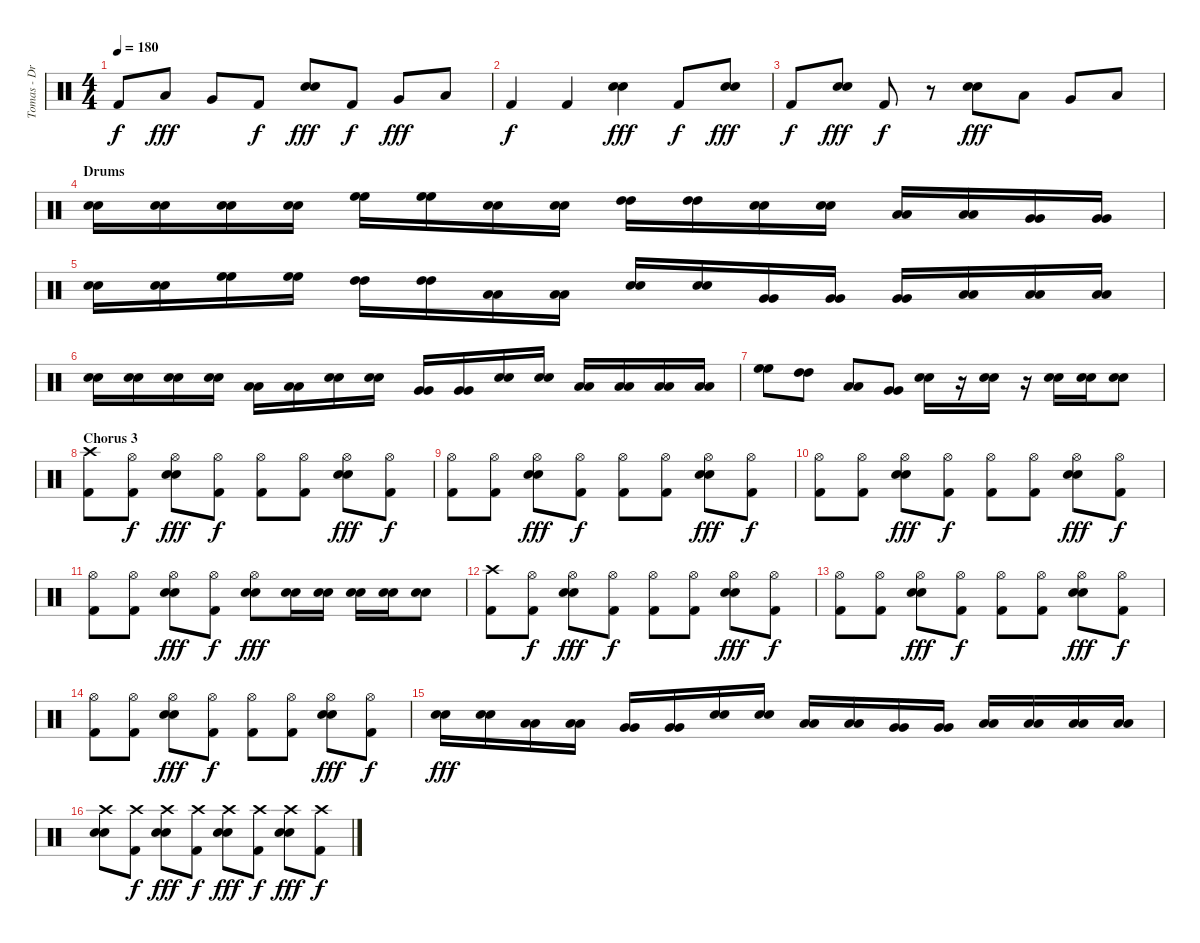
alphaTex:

\track ("Tomas - Drums" "Tomas - Dr") {instrument percussion}
\staff {score}
\articulation defaults
\ts (4 4)
\tempo 180
\clef neutral
\ks c "Kick (hit) 2".8{dy f} "Low Tom (hit)".8{dy fff} "Very Low Tom (hit)".8 "Kick (hit) 2".8{dy f}
("Electric Snare (hit)" "Electric Snare (hit)").8{dy fff} "Kick (hit) 2".8{dy f} "Very Low Tom (hit)".8{dy fff} "Low Floor Tom (hit)".8 |
"Kick (hit) 2".4{dy f} "Kick (hit) 2".4 ("Electric Snare (hit)" "Electric Snare (hit)").4{dy fff} "Kick (hit) 2".8{dy f} ("Electric Snare (hit)" "Electric Snare (hit)").8{dy fff} |
"Kick (hit) 2".8{dy f} ("Electric Snare (hit)" "Electric Snare (hit)").8{dy fff} "Kick (hit) 2".8{dy f} r.8 ("Electric Snare (hit)" "Electric Snare (hit)").8{dy fff} "Low Tom (hit)".8 "Very Low Tom (hit)".8 "Low Floor Tom (hit)".8 |
\section ("" "Drums")
("Electric Snare (hit)" "Electric Snare (hit)").16 ("Electric Snare (hit)" "Electric Snare (hit)").16 ("Electric Snare (hit)" "Electric Snare (hit)").16 ("Electric Snare (hit)" "Electric Snare (hit)").16 ("High Floor Tom (hit)" "High Floor Tom (hit)").16 ("High Floor Tom (hit)" "High Floor Tom (hit)").16 ("Electric Snare (hit)" "Electric Snare (hit)").16 ("Electric Snare (hit)" "Electric Snare (hit)").16 ("High Tom (hit)" "High Tom (hit)").16 ("High Tom (hit)" "High Tom (hit)").16 ("Electric Snare (hit)" "Electric Snare (hit)").16 ("Electric Snare (hit)" "Electric Snare (hit)").16 ("Low Tom (hit)" "Low Tom (hit)").16 ("Low Tom (hit)" "Low Tom (hit)").16 ("Very Low Tom (hit)" "Very Low Tom (hit)").16 ("Very Low Tom (hit)" "Very Low Tom (hit)").16 |
("Electric Snare (hit)" "Electric Snare (hit)").16 ("Electric Snare (hit)" "Electric Snare (hit)").16 ("High Floor Tom (hit)" "High Floor Tom (hit)").16 ("High Floor Tom (hit)" "High Floor Tom (hit)").16 ("High Tom (hit)" "High Tom (hit)").16 ("High Tom (hit)" "High Tom (hit)").16 ("Low Tom (hit)" "Low Tom (hit)").16 ("Low Tom (hit)" "Low Tom (hit)").16 ("Electric Snare (hit)" "Electric Snare (hit)").16 ("Electric Snare (hit)" "Electric Snare (hit)").16 ("Very Low Tom (hit)" "Very Low Tom (hit)").16 ("Very Low Tom (hit)" "Very Low Tom (hit)").16 ("Very Low Tom (hit)" "Very Low Tom (hit)").16 ("Low Floor Tom (hit)" "Low Floor Tom (hit)").16 ("Low Floor Tom (hit)" "Low Floor Tom (hit)").16 ("Low Floor Tom (hit)" "Low Floor Tom (hit)").16 |
("Electric Snare (hit)" "Electric Snare (hit)").16 ("Electric Snare (hit)" "Electric Snare (hit)").16 ("Electric Snare (hit)" "Electric Snare (hit)").16 ("Electric Snare (hit)" "Electric Snare (hit)").16 ("Low Tom (hit)" "Low Tom (hit)").16 ("Low Tom (hit)" "Low Tom (hit)").16 ("Electric Snare (hit)" "Electric Snare (hit)").16 ("Electric Snare (hit)" "Electric Snare (hit)").16 ("Very Low Tom (hit)" "Very Low Tom (hit)").16 ("Very Low Tom (hit)" "Very Low Tom (hit)").16 ("Electric Snare (hit)" "Electric Snare (hit)").16 ("Electric Snare (hit)" "Electric Snare (hit)").16 ("Low Floor Tom (hit)" "Low Floor Tom (hit)").16 ("Low Floor Tom (hit)" "Low Floor Tom (hit)").16 ("Low Tom (hit)" "Low Tom (hit)").16 ("Low Tom (hit)" "Low Tom (hit)").16 |
("High Floor Tom (hit)" "High Floor Tom (hit)").8 ("High Tom (hit)" "High Tom (hit)").8 ("Low Tom (hit)" "Low Tom (hit)").8 ("Very Low Tom (hit)" "Very Low Tom (hit)").8 ("Electric Snare (hit)" "Electric Snare (hit)").16 r.16 ("Electric Snare (hit)" "Electric Snare (hit)").16 r.16 ("Electric Snare (hit)" "Electric Snare (hit)").16 ("Electric Snare (hit)" "Electric Snare (hit)").16 ("Electric Snare (hit)" "Electric Snare (hit)").8 |
\section ("" "Chorus 3")
("Crash high (hit)" "Kick (hit) 2").8 ("Hi-Hat (open)" "Kick (hit) 2").8{dy f} ("Hi-Hat (open)" "Electric Snare (hit)" "Electric Snare (hit)").8{dy fff} ("Hi-Hat (open)" "Kick (hit) 2").8{dy f} ("Hi-Hat (open)" "Kick (hit) 2").8 ("Hi-Hat (open)" "Kick (hit) 2").8 ("Hi-Hat (open)" "Electric Snare (hit)" "Electric Snare (hit)").8{dy fff} ("Hi-Hat (open)" "Kick (hit) 2").8{dy f} |
("Hi-Hat (open)" "Kick (hit) 2").8 ("Hi-Hat (open)" "Kick (hit) 2").8 ("Hi-Hat (open)" "Electric Snare (hit)" "Electric Snare (hit)").8{dy fff} ("Hi-Hat (open)" "Kick (hit) 2").8{dy f} ("Hi-Hat (open)" "Kick (hit) 2").8 ("Hi-Hat (open)" "Kick (hit) 2").8 ("Hi-Hat (open)" "Electric Snare (hit)" "Electric Snare (hit)").8{dy fff} ("Hi-Hat (open)" "Kick (hit) 2").8{dy f} |
("Hi-Hat (open)" "Kick (hit) 2").8 ("Hi-Hat (open)" "Kick (hit) 2").8 ("Hi-Hat (open)" "Electric Snare (hit)" "Electric Snare (hit)").8{dy fff} ("Hi-Hat (open)" "Kick (hit) 2").8{dy f} ("Hi-Hat (open)" "Kick (hit) 2").8 ("Hi-Hat (open)" "Kick (hit) 2").8 ("Hi-Hat (open)" "Electric Snare (hit)" "Electric Snare (hit)").8{dy fff} ("Hi-Hat (open)" "Kick (hit) 2").8{dy f} |
("Hi-Hat (open)" "Kick (hit) 2").8 ("Hi-Hat (open)" "Kick (hit) 2").8 ("Hi-Hat (open)" "Electric Snare (hit)" "Electric Snare (hit)").8{dy fff} ("Hi-Hat (open)" "Kick (hit) 2").8{dy f} ("Hi-Hat (open)" "Electric Snare (hit)" "Electric Snare (hit)").8{dy fff} ("Electric Snare (hit)" "Electric Snare (hit)").16 ("Electric Snare (hit)" "Electric Snare (hit)").16 ("Electric Snare (hit)" "Electric Snare (hit)").16 ("Electric Snare (hit)" "Electric Snare (hit)").16 ("Electric Snare (hit)" "Electric Snare (hit)").8 |
("Crash high (hit)" "Kick (hit) 2").8 ("Hi-Hat (open)" "Kick (hit) 2").8{dy f} ("Hi-Hat (open)" "Electric Snare (hit)" "Electric Snare (hit)").8{dy fff} ("Hi-Hat (open)" "Kick (hit) 2").8{dy f} ("Hi-Hat (open)" "Kick (hit) 2").8 ("Hi-Hat (open)" "Kick (hit) 2").8 ("Hi-Hat (open)" "Electric Snare (hit)" "Electric Snare (hit)").8{dy fff} ("Hi-Hat (open)" "Kick (hit) 2").8{dy f} |
("Hi-Hat (open)" "Kick (hit) 2").8 ("Hi-Hat (open)" "Kick (hit) 2").8 ("Hi-Hat (open)" "Electric Snare (hit)" "Electric Snare (hit)").8{dy fff} ("Hi-Hat (open)" "Kick (hit) 2").8{dy f} ("Hi-Hat (open)" "Kick (hit) 2").8 ("Hi-Hat (open)" "Kick (hit) 2").8 ("Hi-Hat (open)" "Electric Snare (hit)" "Electric Snare (hit)").8{dy fff} ("Hi-Hat (open)" "Kick (hit) 2").8{dy f} |
("Hi-Hat (open)" "Kick (hit) 2").8 ("Hi-Hat (open)" "Kick (hit) 2").8 ("Hi-Hat (open)" "Electric Snare (hit)" "Electric Snare (hit)").8{dy fff} ("Hi-Hat (open)" "Kick (hit) 2").8{dy f} ("Hi-Hat (open)" "Kick (hit) 2").8 ("Hi-Hat (open)" "Kick (hit) 2").8 ("Hi-Hat (open)" "Electric Snare (hit)" "Electric Snare (hit)").8{dy fff} ("Hi-Hat (open)" "Kick (hit) 2").8{dy f} |
("Electric Snare (hit)" "Electric Snare (hit)").16{dy fff} ("Electric Snare (hit)" "Electric Snare (hit)").16 ("Low Tom (hit)" "Low Tom (hit)").16 ("Low Tom (hit)" "Low Tom (hit)").16 ("Very Low Tom (hit)" "Very Low Tom (hit)").16 ("Very Low Tom (hit)" "Very Low Tom (hit)").16 ("Electric Snare (hit)" "Electric Snare (hit)").16 ("Electric Snare (hit)" "Electric Snare (hit)").16 ("Low Tom (hit)" "Low Tom (hit)").16 ("Low Tom (hit)" "Low Tom (hit)").16 ("Very Low Tom (hit)" "Very Low Tom (hit)").16 ("Very Low Tom (hit)" "Very Low Tom (hit)").16 ("Low Tom (hit)" "Low Tom (hit)").16 ("Low Tom (hit)" "Low Tom (hit)").16 ("Low Floor Tom (hit)" "Low Floor Tom (hit)").16 ("Low Floor Tom (hit)" "Low Floor Tom (hit)").16 |
("Crash high (hit)" "Electric Snare (hit)" "Electric Snare (hit)").8 ("Crash high (hit)" "Kick (hit) 2").8{dy f} ("Crash high (hit)" "Electric Snare (hit)" "Electric Snare (hit)").8{dy fff} ("Crash high (hit)" "Kick (hit) 2").8{dy f} ("Crash high (hit)" "Electric Snare (hit)" "Electric Snare (hit)").8{dy fff} ("Crash high (hit)" "Kick (hit) 2").8{dy f} ("Crash high (hit)" "Electric Snare (hit)" "Electric Snare (hit)").8{dy fff} ("Crash high (hit)" "Kick (hit) 2").8{dy f}
